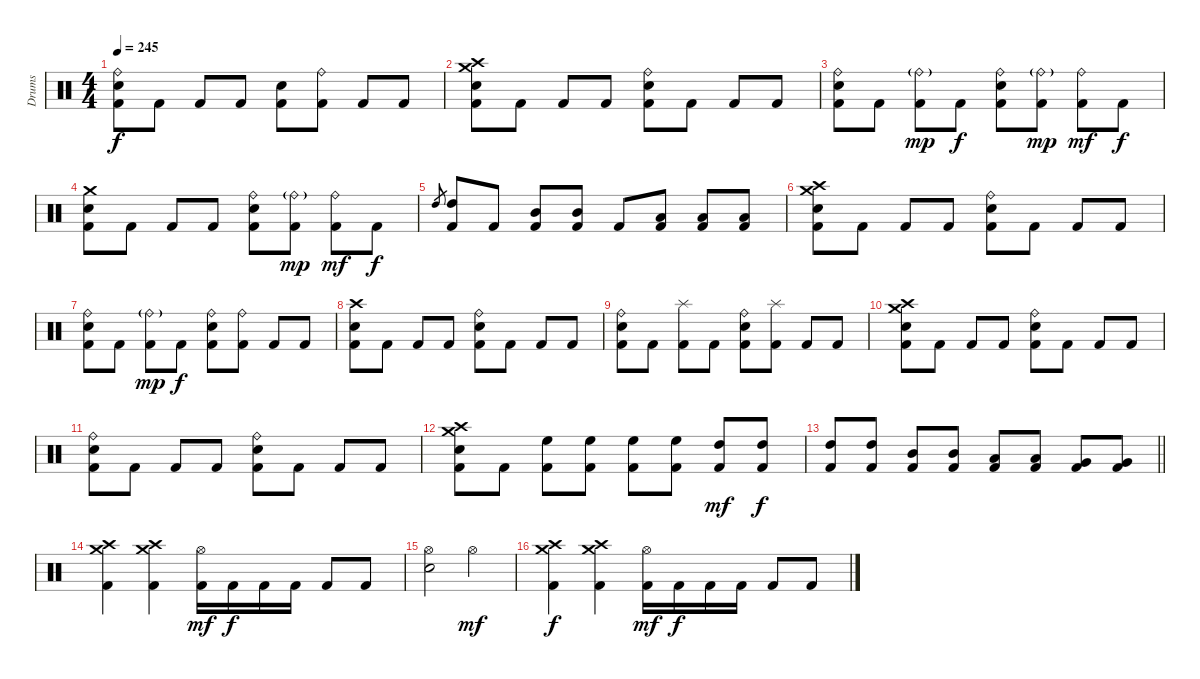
\track ("Drums" "Drums") {instrument percussion}
\staff {score}
\articulation defaults
\ts (4 4)
\tempo 245
\clef neutral
\ks c
("Ride (bell)" "Electric Snare (hit)" "Kick (hit) 2").8{dy f} "Kick (hit) 2".8 "Kick (hit) 2".8 "Kick (hit) 2".8 ("Electric Snare (hit)" "Kick (hit) 2").8 ("Ride (bell)" "Kick (hit) 2").8 "Kick (hit) 2".8 "Kick (hit) 2".8 |
("Crash high (hit)" "Crash medium (hit)" "Electric Snare (hit)" "Kick (hit) 2").8 "Kick (hit) 2".8 "Kick (hit) 2".8 "Kick (hit) 2".8 ("Ride (bell)" "Electric Snare (hit)" "Kick (hit) 2").8 "Kick (hit) 2".8 "Kick (hit) 2".8 "Kick (hit) 2".8 |
("Ride (bell)" "Electric Snare (hit)" "Kick (hit) 2").8 "Kick (hit) 2".8 ("Ride (bell)"{g} "Kick (hit) 2").8{dy mp} "Kick (hit) 2".8{dy f} ("Ride (bell)" "Electric Snare (hit)" "Kick (hit) 2").8 ("Ride (bell)"{g} "Kick (hit) 2").8{dy mp} ("Ride (bell)" "Kick (hit) 2").8{dy mf} "Kick (hit) 2".8{dy f} |
("Crash medium (hit)" "Electric Snare (hit)" "Kick (hit) 2").8 "Kick (hit) 2".8 "Kick (hit) 2".8 "Kick (hit) 2".8 ("Ride (bell)" "Electric Snare (hit)" "Kick (hit) 2").8 ("Ride (bell)"{g} "Kick (hit) 2").8{dy mp} ("Ride (bell)" "Kick (hit) 2").8{dy mf} "Kick (hit) 2".8{dy f} |
"High Tom (hit)".8{gr} ("High Tom (hit)" "Kick (hit) 2").8 "Kick (hit) 2".8 ("Mid Tom (hit)" "Kick (hit) 2").8 ("Mid Tom (hit)" "Kick (hit) 2").8 "Kick (hit) 2".8 ("Low Tom (hit)" "Kick (hit) 2").8 ("Low Tom (hit)" "Kick (hit) 2").8 ("Low Tom (hit)" "Kick (hit) 2").8 |
("Crash high (hit)" "Crash medium (hit)" "Electric Snare (hit)" "Kick (hit) 2").8 "Kick (hit) 2".8 "Kick (hit) 2".8 "Kick (hit) 2".8 ("Ride (bell)" "Electric Snare (hit)" "Kick (hit) 2").8 "Kick (hit) 2".8 "Kick (hit) 2".8 "Kick (hit) 2".8 |
("Ride (bell)" "Electric Snare (hit)" "Kick (hit) 2").8 "Kick (hit) 2".8 ("Ride (bell)"{g} "Kick (hit) 2").8{dy mp} "Kick (hit) 2".8{dy f} ("Ride (bell)" "Electric Snare (hit)" "Kick (hit) 2").8 ("Ride (bell)" "Kick (hit) 2").8 "Kick (hit) 2".8 "Kick (hit) 2".8 |
("Crash high (hit)" "Electric Snare (hit)" "Kick (hit) 2").8 "Kick (hit) 2".8 "Kick (hit) 2".8 "Kick (hit) 2".8 ("Ride (bell)" "Electric Snare (hit)" "Kick (hit) 2").8 "Kick (hit) 2".8 "Kick (hit) 2".8 "Kick (hit) 2".8 |
("Ride (bell)" "Electric Snare (hit)" "Kick (hit) 2").8 "Kick (hit) 2".8 ("Splash (hit)" "Kick (hit) 2").8 "Kick (hit) 2".8 ("Ride (bell)" "Electric Snare (hit)" "Kick (hit) 2").8 ("Splash (hit)" "Kick (hit) 2").8 "Kick (hit) 2".8 "Kick (hit) 2".8 |
("Crash high (hit)" "Crash medium (hit)" "Electric Snare (hit)" "Kick (hit) 2").8 "Kick (hit) 2".8 "Kick (hit) 2".8 "Kick (hit) 2".8 ("Ride (bell)" "Electric Snare (hit)" "Kick (hit) 2").8 "Kick (hit) 2".8 "Kick (hit) 2".8 "Kick (hit) 2".8 |
("Ride (bell)" "Electric Snare (hit)" "Kick (hit) 2").8 "Kick (hit) 2".8 "Kick (hit) 2".8 "Kick (hit) 2".8 ("Ride (bell)" "Electric Snare (hit)" "Kick (hit) 2").8 "Kick (hit) 2".8 "Kick (hit) 2".8 "Kick (hit) 2".8 |
("Crash high (hit)" "Crash medium (hit)" "Electric Snare (hit)" "Kick (hit) 2").8 "Kick (hit) 2".8 ("High Floor Tom (hit)" "Kick (hit) 2").8 ("High Floor Tom (hit)" "Kick (hit) 2").8 ("High Floor Tom (hit)" "Kick (hit) 2").8 ("High Floor Tom (hit)" "Kick (hit) 2").8 ("High Tom (hit)" "Kick (hit) 2").8{dy mf} ("High Tom (hit)" "Kick (hit) 2").8{dy f} |
\barLineRight lightlight
("High Tom (hit)" "Kick (hit) 2").8 ("High Tom (hit)" "Kick (hit) 2").8 ("Mid Tom (hit)" "Kick (hit) 2").8 ("Mid Tom (hit)" "Kick (hit) 2").8 ("Low Tom (hit)" "Kick (hit) 2").8 ("Low Tom (hit)" "Kick (hit) 2").8 ("Very Low Tom (hit)" "Kick (hit) 2").8 ("Very Low Tom (hit)" "Kick (hit) 2").8 |
("Crash high (hit)" "Crash medium (hit)" "Kick (hit) 2").4 ("Crash high (hit)" "Crash medium (hit)" "Kick (hit) 2").4 ("Hi-Hat (open)" "Kick (hit) 2").16{dy mf} "Kick (hit) 2".16{dy f} "Kick (hit) 2".16 "Kick (hit) 2".16 "Kick (hit) 2".8 "Kick (hit) 2".8 |
("Hi-Hat (open)" "Electric Snare (hit)").2 "Hi-Hat (open)".2{dy mf} |
("Crash high (hit)" "Crash medium (hit)" "Kick (hit) 2").4{dy f} ("Crash high (hit)" "Crash medium (hit)" "Kick (hit) 2").4 ("Hi-Hat (open)" "Kick (hit) 2").16{dy mf} "Kick (hit) 2".16{dy f} "Kick (hit) 2".16 "Kick (hit) 2".16 "Kick (hit) 2".8 "Kick (hit) 2".8
